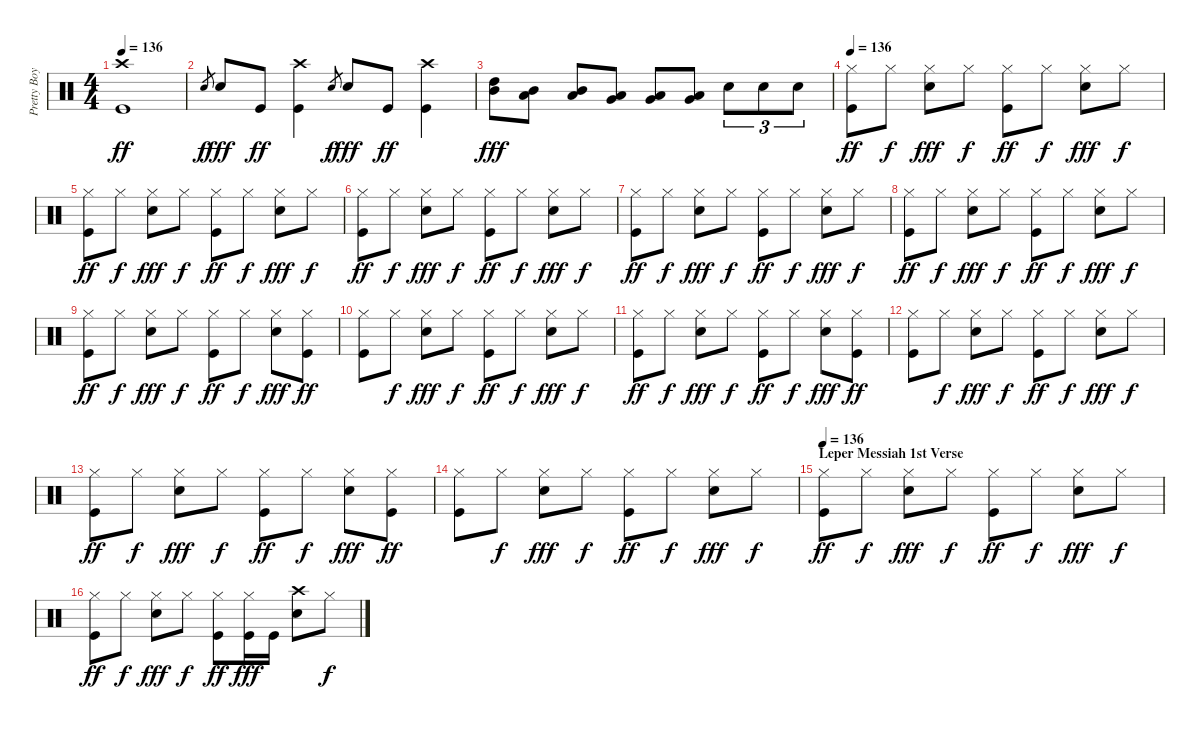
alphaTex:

\track ("Pretty Boy Geoff (Lars Drums)" "Pretty Boy") {instrument percussion}
\staff {score}
\articulation defaults
\ts (4 4)
\tempo 136
\clef neutral
\ks c
("Crash high (hit)" "Kick (hit)").1{dy ff} |
"Electric Snare (hit)".8{gr dy f} "Electric Snare (hit)".8{dy fff} "Kick (hit)".8{dy ff} ("Crash high (hit)" "Kick (hit)").4 "Electric Snare (hit)".8{gr dy f} "Electric Snare (hit)".8{dy fff} "Kick (hit)".8{dy ff} ("Crash high (hit)" "Kick (hit)").4 |
("High Tom (hit)" "Mid Tom (hit)").8{dy fff} ("Mid Tom (hit)" "Low Tom (hit)").8 ("Mid Tom (hit)" "Low Tom (hit)").8 ("Low Tom (hit)" "Very Low Tom (hit)").8 ("Low Tom (hit)" "Very Low Tom (hit)").8 ("Very Low Tom (hit)" "Low Floor Tom (hit)").8 "Electric Snare (hit)".8{tu (3 2)} "Electric Snare (hit)".8{tu (3 2)} "Electric Snare (hit)".8{tu (3 2)} |
\tempo 136
("Hi-Hat (closed)" "Kick (hit)").8{dy ff} "Hi-Hat (closed)".8{dy f} ("Hi-Hat (closed)" "Electric Snare (hit)").8{dy fff} "Hi-Hat (closed)".8{dy f} ("Hi-Hat (closed)" "Kick (hit)").8{dy ff} "Hi-Hat (closed)".8{dy f} ("Hi-Hat (closed)" "Electric Snare (hit)").8{dy fff} "Hi-Hat (closed)".8{dy f} |
("Hi-Hat (closed)" "Kick (hit)").8{dy ff} "Hi-Hat (closed)".8{dy f} ("Hi-Hat (closed)" "Electric Snare (hit)").8{dy fff} "Hi-Hat (closed)".8{dy f} ("Hi-Hat (closed)" "Kick (hit)").8{dy ff} "Hi-Hat (closed)".8{dy f} ("Hi-Hat (closed)" "Electric Snare (hit)").8{dy fff} "Hi-Hat (closed)".8{dy f} |
("Hi-Hat (closed)" "Kick (hit)").8{dy ff} "Hi-Hat (closed)".8{dy f} ("Hi-Hat (closed)" "Electric Snare (hit)").8{dy fff} "Hi-Hat (closed)".8{dy f} ("Hi-Hat (closed)" "Kick (hit)").8{dy ff} "Hi-Hat (closed)".8{dy f} ("Hi-Hat (closed)" "Electric Snare (hit)").8{dy fff} "Hi-Hat (closed)".8{dy f} |
("Hi-Hat (closed)" "Kick (hit)").8{dy ff} "Hi-Hat (closed)".8{dy f} ("Hi-Hat (closed)" "Electric Snare (hit)").8{dy fff} "Hi-Hat (closed)".8{dy f} ("Hi-Hat (closed)" "Kick (hit)").8{dy ff} "Hi-Hat (closed)".8{dy f} ("Hi-Hat (closed)" "Electric Snare (hit)").8{dy fff} "Hi-Hat (closed)".8{dy f} |
("Hi-Hat (closed)" "Kick (hit)").8{dy ff} "Hi-Hat (closed)".8{dy f} ("Hi-Hat (closed)" "Electric Snare (hit)").8{dy fff} "Hi-Hat (closed)".8{dy f} ("Hi-Hat (closed)" "Kick (hit)").8{dy ff} "Hi-Hat (closed)".8{dy f} ("Hi-Hat (closed)" "Electric Snare (hit)").8{dy fff} "Hi-Hat (closed)".8{dy f} |
("Hi-Hat (closed)" "Kick (hit)").8{dy ff} "Hi-Hat (closed)".8{dy f} ("Hi-Hat (closed)" "Electric Snare (hit)").8{dy fff} "Hi-Hat (closed)".8{dy f} ("Hi-Hat (closed)" "Kick (hit)").8{dy ff} "Hi-Hat (closed)".8{dy f} ("Hi-Hat (closed)" "Electric Snare (hit)").8{dy fff} ("Hi-Hat (closed)" "Kick (hit)").8{dy ff} |
("Hi-Hat (closed)" "Kick (hit)").8 "Hi-Hat (closed)".8{dy f} ("Hi-Hat (closed)" "Electric Snare (hit)").8{dy fff} "Hi-Hat (closed)".8{dy f} ("Hi-Hat (closed)" "Kick (hit)").8{dy ff} "Hi-Hat (closed)".8{dy f} ("Hi-Hat (closed)" "Electric Snare (hit)").8{dy fff} "Hi-Hat (closed)".8{dy f} |
("Hi-Hat (closed)" "Kick (hit)").8{dy ff} "Hi-Hat (closed)".8{dy f} ("Hi-Hat (closed)" "Electric Snare (hit)").8{dy fff} "Hi-Hat (closed)".8{dy f} ("Hi-Hat (closed)" "Kick (hit)").8{dy ff} "Hi-Hat (closed)".8{dy f} ("Hi-Hat (closed)" "Electric Snare (hit)").8{dy fff} ("Hi-Hat (closed)" "Kick (hit)").8{dy ff} |
("Hi-Hat (closed)" "Kick (hit)").8 "Hi-Hat (closed)".8{dy f} ("Hi-Hat (closed)" "Electric Snare (hit)").8{dy fff} "Hi-Hat (closed)".8{dy f} ("Hi-Hat (closed)" "Kick (hit)").8{dy ff} "Hi-Hat (closed)".8{dy f} ("Hi-Hat (closed)" "Electric Snare (hit)").8{dy fff} "Hi-Hat (closed)".8{dy f} |
("Hi-Hat (closed)" "Kick (hit)").8{dy ff} "Hi-Hat (closed)".8{dy f} ("Hi-Hat (closed)" "Electric Snare (hit)").8{dy fff} "Hi-Hat (closed)".8{dy f} ("Hi-Hat (closed)" "Kick (hit)").8{dy ff} "Hi-Hat (closed)".8{dy f} ("Hi-Hat (closed)" "Electric Snare (hit)").8{dy fff} ("Hi-Hat (closed)" "Kick (hit)").8{dy ff} |
("Hi-Hat (closed)" "Kick (hit)").8 "Hi-Hat (closed)".8{dy f} ("Hi-Hat (closed)" "Electric Snare (hit)").8{dy fff} "Hi-Hat (closed)".8{dy f} ("Hi-Hat (closed)" "Kick (hit)").8{dy ff} "Hi-Hat (closed)".8{dy f} ("Hi-Hat (closed)" "Electric Snare (hit)").8{dy fff} "Hi-Hat (closed)".8{dy f} |
\section ("" "Leper Messiah 1st Verse")
\tempo 136
("Hi-Hat (closed)" "Kick (hit)").8{dy ff} "Hi-Hat (closed)".8{dy f} ("Hi-Hat (closed)" "Electric Snare (hit)").8{dy fff} "Hi-Hat (closed)".8{dy f} ("Hi-Hat (closed)" "Kick (hit)").8{dy ff} "Hi-Hat (closed)".8{dy f} ("Hi-Hat (closed)" "Electric Snare (hit)").8{dy fff} "Hi-Hat (closed)".8{dy f} |
("Hi-Hat (closed)" "Kick (hit)").8{dy ff} "Hi-Hat (closed)".8{dy f} ("Hi-Hat (closed)" "Electric Snare (hit)").8{dy fff} "Hi-Hat (closed)".8{dy f} ("Hi-Hat (closed)" "Kick (hit)").8{dy ff} ("Hi-Hat (closed)" "Kick (hit)").16{dy fff} "Kick (hit)".16 ("Crash high (hit)" "Electric Snare (hit)").8 "Hi-Hat (closed)".8{dy f}
